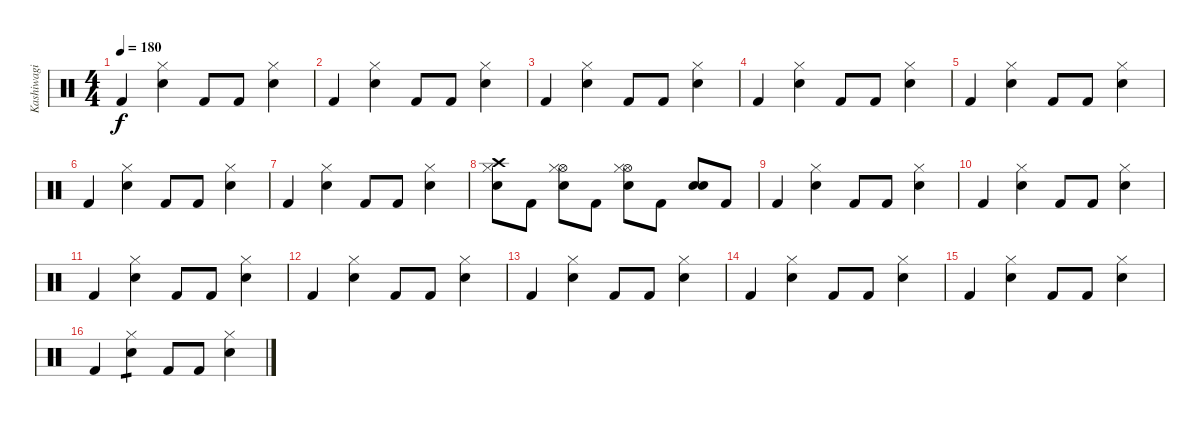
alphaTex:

\track ("Kashiwagi Yuki" "Kashiwagi ") {instrument percussion}
\staff {score}
\articulation defaults
\ts (4 4)
\tempo 180
\clef neutral
\ks c "Kick (hit) 2".4{dy f}
("Hi-Hat (closed)" "Electric Snare (hit)").4 "Kick (hit) 2".8 "Kick (hit) 2".8 ("Hi-Hat (closed)" "Electric Snare (hit)").4 |
"Kick (hit) 2".4 ("Hi-Hat (closed)" "Electric Snare (hit)").4 "Kick (hit) 2".8 "Kick (hit) 2".8 ("Hi-Hat (closed)" "Electric Snare (hit)").4 |
"Kick (hit) 2".4 ("Hi-Hat (closed)" "Electric Snare (hit)").4 "Kick (hit) 2".8 "Kick (hit) 2".8 ("Hi-Hat (closed)" "Electric Snare (hit)").4 |
"Kick (hit) 2".4 ("Hi-Hat (closed)" "Electric Snare (hit)").4 "Kick (hit) 2".8 "Kick (hit) 2".8 ("Hi-Hat (closed)" "Electric Snare (hit)").4 |
"Kick (hit) 2".4 ("Hi-Hat (closed)" "Electric Snare (hit)").4 "Kick (hit) 2".8 "Kick (hit) 2".8 ("Hi-Hat (closed)" "Electric Snare (hit)").4 |
"Kick (hit) 2".4 ("Hi-Hat (closed)" "Electric Snare (hit)").4 "Kick (hit) 2".8 "Kick (hit) 2".8 ("Hi-Hat (closed)" "Electric Snare (hit)").4 |
"Kick (hit) 2".4 ("Hi-Hat (closed)" "Electric Snare (hit)").4 "Kick (hit) 2".8 "Kick (hit) 2".8 ("Hi-Hat (closed)" "Electric Snare (hit)").4 |
("Crash high (hit)" "Hi-Hat (closed)" "Electric Snare (hit)").8 "Kick (hit) 2".8 ("Hi-Hat (open)" "Hi-Hat (closed)" "Electric Snare (hit)").8 "Kick (hit) 2".8 ("Hi-Hat (open)" "Hi-Hat (closed)" "Electric Snare (hit)").8 "Kick (hit) 2".8 ("Electric Snare (hit)" "Electric Snare (hit)").8 "Kick (hit) 2".8 |
"Kick (hit) 2".4 ("Hi-Hat (closed)" "Electric Snare (hit)").4 "Kick (hit) 2".8 "Kick (hit) 2".8 ("Hi-Hat (closed)" "Electric Snare (hit)").4 |
"Kick (hit) 2".4 ("Hi-Hat (closed)" "Electric Snare (hit)").4 "Kick (hit) 2".8 "Kick (hit) 2".8 ("Hi-Hat (closed)" "Electric Snare (hit)").4 |
"Kick (hit) 2".4 ("Hi-Hat (closed)" "Electric Snare (hit)").4 "Kick (hit) 2".8 "Kick (hit) 2".8 ("Hi-Hat (closed)" "Electric Snare (hit)").4 |
"Kick (hit) 2".4 ("Hi-Hat (closed)" "Electric Snare (hit)").4 "Kick (hit) 2".8 "Kick (hit) 2".8 ("Hi-Hat (closed)" "Electric Snare (hit)").4 |
"Kick (hit) 2".4 ("Hi-Hat (closed)" "Electric Snare (hit)").4 "Kick (hit) 2".8 "Kick (hit) 2".8 ("Hi-Hat (closed)" "Electric Snare (hit)").4 |
"Kick (hit) 2".4 ("Hi-Hat (closed)" "Electric Snare (hit)").4 "Kick (hit) 2".8 "Kick (hit) 2".8 ("Hi-Hat (closed)" "Electric Snare (hit)").4 |
"Kick (hit) 2".4 ("Hi-Hat (closed)" "Electric Snare (hit)").4 "Kick (hit) 2".8 "Kick (hit) 2".8 ("Hi-Hat (closed)" "Electric Snare (hit)").4 |
"Kick (hit) 2".4 ("Hi-Hat (closed)" "Electric Snare (hit)").4{tp 1} "Kick (hit) 2".8 "Kick (hit) 2".8 ("Hi-Hat (closed)" "Electric Snare (hit)").4
